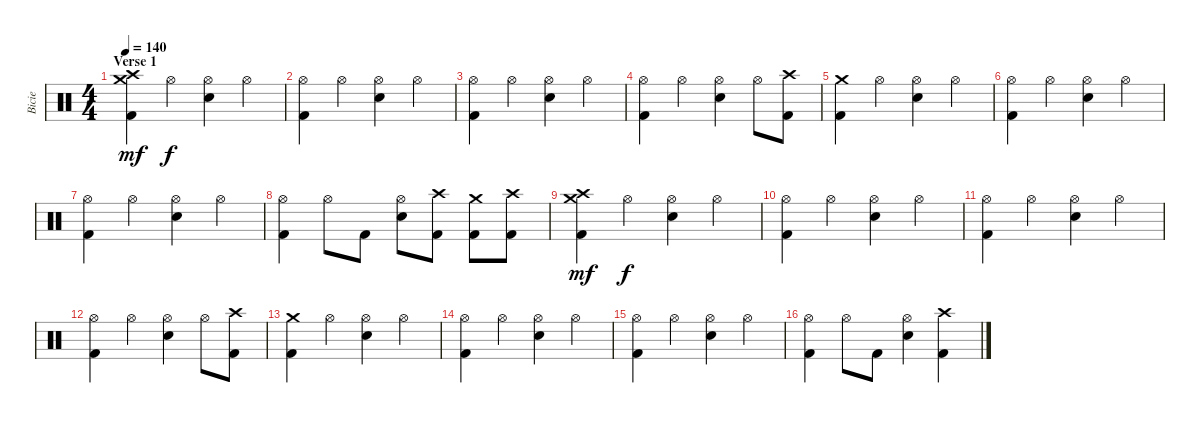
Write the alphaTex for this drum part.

\track ("Bicie" "Bicie") {instrument percussion}
\staff {score}
\articulation defaults
\ts (4 4)
\section ("" "Verse 1")
\tempo 140
\clef neutral
\ks c
("Crash high (hit)" "Crash medium (hit)" "Kick (hit) 2").4{dy mf} "Hi-Hat (open)".4{dy f} ("Hi-Hat (open)" "Snare (hit) 2").4 "Hi-Hat (open)".4 |
("Hi-Hat (open)" "Kick (hit) 2").4 "Hi-Hat (open)".4 ("Hi-Hat (open)" "Snare (hit) 2").4 "Hi-Hat (open)".4 |
("Hi-Hat (open)" "Kick (hit) 2").4 "Hi-Hat (open)".4 ("Hi-Hat (open)" "Snare (hit) 2").4 "Hi-Hat (open)".4 |
("Hi-Hat (open)" "Kick (hit) 2").4 "Hi-Hat (open)".4 ("Hi-Hat (open)" "Snare (hit) 2").4 "Hi-Hat (open)".8 ("Crash high (hit)" "Kick (hit) 2").8 |
("Crash medium (hit)" "Kick (hit) 2").4 "Hi-Hat (open)".4 ("Hi-Hat (open)" "Snare (hit) 2").4 "Hi-Hat (open)".4 |
("Hi-Hat (open)" "Kick (hit) 2").4 "Hi-Hat (open)".4 ("Hi-Hat (open)" "Snare (hit) 2").4 "Hi-Hat (open)".4 |
("Hi-Hat (open)" "Kick (hit) 2").4 "Hi-Hat (open)".4 ("Hi-Hat (open)" "Snare (hit) 2").4 "Hi-Hat (open)".4 |
("Hi-Hat (open)" "Kick (hit) 2").4 "Hi-Hat (open)".8 "Kick (hit) 2".8 ("Hi-Hat (open)" "Snare (hit) 2").8 ("Crash high (hit)" "Kick (hit) 2").8 ("Crash medium (hit)" "Kick (hit) 2").8 ("Crash high (hit)" "Kick (hit) 2").8 |
("Crash high (hit)" "Crash medium (hit)" "Kick (hit) 2").4{dy mf} "Hi-Hat (open)".4{dy f} ("Hi-Hat (open)" "Snare (hit) 2").4 "Hi-Hat (open)".4 |
("Hi-Hat (open)" "Kick (hit) 2").4 "Hi-Hat (open)".4 ("Hi-Hat (open)" "Snare (hit) 2").4 "Hi-Hat (open)".4 |
("Hi-Hat (open)" "Kick (hit) 2").4 "Hi-Hat (open)".4 ("Hi-Hat (open)" "Snare (hit) 2").4 "Hi-Hat (open)".4 |
("Hi-Hat (open)" "Kick (hit) 2").4 "Hi-Hat (open)".4 ("Hi-Hat (open)" "Snare (hit) 2").4 "Hi-Hat (open)".8 ("Crash high (hit)" "Kick (hit) 2").8 |
("Crash medium (hit)" "Kick (hit) 2").4 "Hi-Hat (open)".4 ("Hi-Hat (open)" "Snare (hit) 2").4 "Hi-Hat (open)".4 |
("Hi-Hat (open)" "Kick (hit) 2").4 "Hi-Hat (open)".4 ("Hi-Hat (open)" "Snare (hit) 2").4 "Hi-Hat (open)".4 |
("Hi-Hat (open)" "Kick (hit) 2").4 "Hi-Hat (open)".4 ("Hi-Hat (open)" "Snare (hit) 2").4 "Hi-Hat (open)".4 |
("Hi-Hat (open)" "Kick (hit) 2").4 "Hi-Hat (open)".8 "Kick (hit) 2".8 ("Hi-Hat (open)" "Snare (hit) 2").4 ("Crash high (hit)" "Kick (hit) 2").4
